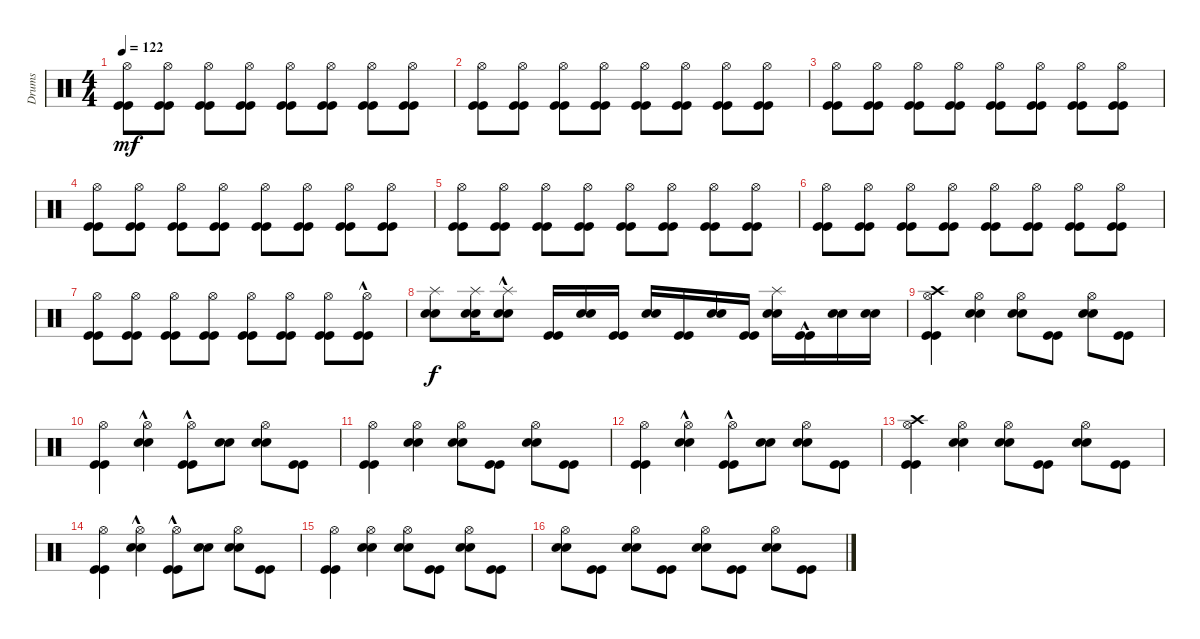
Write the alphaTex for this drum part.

\track ("Drums" "Drums") {instrument percussion}
\staff {score}
\articulation defaults
\ts (4 4)
\tempo 122
\clef neutral
\ks c
("Kick (hit)" "Kick (hit)" "Hi-Hat (open)").8{dy mf} ("Kick (hit)" "Kick (hit)" "Hi-Hat (open)").8 ("Kick (hit)" "Kick (hit)" "Hi-Hat (open)").8 ("Kick (hit)" "Kick (hit)" "Hi-Hat (open)").8 ("Kick (hit)" "Kick (hit)" "Hi-Hat (open)").8 ("Kick (hit)" "Kick (hit)" "Hi-Hat (open)").8 ("Kick (hit)" "Kick (hit)" "Hi-Hat (open)").8 ("Kick (hit)" "Kick (hit)" "Hi-Hat (open)").8 |
("Kick (hit)" "Kick (hit)" "Hi-Hat (open)").8 ("Kick (hit)" "Kick (hit)" "Hi-Hat (open)").8 ("Kick (hit)" "Kick (hit)" "Hi-Hat (open)").8 ("Kick (hit)" "Kick (hit)" "Hi-Hat (open)").8 ("Kick (hit)" "Kick (hit)" "Hi-Hat (open)").8 ("Kick (hit)" "Kick (hit)" "Hi-Hat (open)").8 ("Kick (hit)" "Kick (hit)" "Hi-Hat (open)").8 ("Kick (hit)" "Kick (hit)" "Hi-Hat (open)").8 |
("Kick (hit)" "Kick (hit)" "Hi-Hat (open)").8 ("Kick (hit)" "Kick (hit)" "Hi-Hat (open)").8 ("Kick (hit)" "Kick (hit)" "Hi-Hat (open)").8 ("Kick (hit)" "Kick (hit)" "Hi-Hat (open)").8 ("Kick (hit)" "Kick (hit)" "Hi-Hat (open)").8 ("Kick (hit)" "Kick (hit)" "Hi-Hat (open)").8 ("Kick (hit)" "Kick (hit)" "Hi-Hat (open)").8 ("Kick (hit)" "Kick (hit)" "Hi-Hat (open)").8 |
("Kick (hit)" "Kick (hit)" "Hi-Hat (open)").8 ("Kick (hit)" "Kick (hit)" "Hi-Hat (open)").8 ("Kick (hit)" "Kick (hit)" "Hi-Hat (open)").8 ("Kick (hit)" "Kick (hit)" "Hi-Hat (open)").8 ("Kick (hit)" "Kick (hit)" "Hi-Hat (open)").8 ("Kick (hit)" "Kick (hit)" "Hi-Hat (open)").8 ("Kick (hit)" "Kick (hit)" "Hi-Hat (open)").8 ("Kick (hit)" "Kick (hit)" "Hi-Hat (open)").8 |
("Kick (hit)" "Kick (hit)" "Hi-Hat (open)").8 ("Kick (hit)" "Kick (hit)" "Hi-Hat (open)").8 ("Kick (hit)" "Kick (hit)" "Hi-Hat (open)").8 ("Kick (hit)" "Kick (hit)" "Hi-Hat (open)").8 ("Kick (hit)" "Kick (hit)" "Hi-Hat (open)").8 ("Kick (hit)" "Kick (hit)" "Hi-Hat (open)").8 ("Kick (hit)" "Kick (hit)" "Hi-Hat (open)").8 ("Kick (hit)" "Kick (hit)" "Hi-Hat (open)").8 |
("Kick (hit)" "Kick (hit)" "Hi-Hat (open)").8 ("Kick (hit)" "Kick (hit)" "Hi-Hat (open)").8 ("Kick (hit)" "Kick (hit)" "Hi-Hat (open)").8 ("Kick (hit)" "Kick (hit)" "Hi-Hat (open)").8 ("Kick (hit)" "Kick (hit)" "Hi-Hat (open)").8 ("Kick (hit)" "Kick (hit)" "Hi-Hat (open)").8 ("Kick (hit)" "Kick (hit)" "Hi-Hat (open)").8 ("Kick (hit)" "Kick (hit)" "Hi-Hat (open)").8 |
("Kick (hit)" "Kick (hit)" "Hi-Hat (open)").8 ("Kick (hit)" "Kick (hit)" "Hi-Hat (open)").8 ("Kick (hit)" "Kick (hit)" "Hi-Hat (open)").8 ("Kick (hit)" "Kick (hit)" "Hi-Hat (open)").8 ("Kick (hit)" "Kick (hit)" "Hi-Hat (open)").8 ("Kick (hit)" "Kick (hit)" "Hi-Hat (open)").8 ("Kick (hit)" "Kick (hit)" "Hi-Hat (open)").8 ("Kick (hit)"{hac} "Kick (hit)"{hac} "Hi-Hat (open)").8 |
("Snare (hit) 2" "Snare (hit) 2" "Splash (hit)").8{dy f} ("Snare (hit) 2" "Snare (hit) 2" "Splash (hit)").16 ("Snare (hit) 2"{hac} "Snare (hit) 2"{hac} "Splash (hit)").8 ("Kick (hit)" "Kick (hit)").16 ("Snare (hit) 2" "Snare (hit) 2").16 ("Kick (hit)" "Kick (hit)").16 ("Snare (hit) 2" "Snare (hit) 2").16 ("Kick (hit)" "Kick (hit)").16 ("Snare (hit) 2" "Snare (hit) 2").16 ("Kick (hit)" "Kick (hit)").16 ("Snare (hit) 2" "Snare (hit) 2" "Splash (hit)").16 ("Kick (hit)"{hac} "Kick (hit)"{hac}).16 ("Snare (hit) 2" "Snare (hit) 2").16 ("Snare (hit) 2" "Snare (hit) 2").16 |
("Kick (hit)" "Kick (hit)" "Hi-Hat (open)" "Crash high (hit)").4 ("Snare (hit) 2" "Snare (hit) 2" "Hi-Hat (open)").4 ("Snare (hit) 2" "Snare (hit) 2" "Hi-Hat (open)").8 ("Kick (hit)" "Kick (hit)").8 ("Snare (hit) 2" "Snare (hit) 2" "Hi-Hat (open)").8 ("Kick (hit)" "Kick (hit)").8 |
("Kick (hit)" "Kick (hit)" "Hi-Hat (open)").4 ("Snare (hit) 2"{hac} "Snare (hit) 2"{hac} "Hi-Hat (open)").4 ("Kick (hit)"{hac} "Kick (hit)"{hac} "Hi-Hat (open)").8 ("Snare (hit) 2" "Snare (hit) 2").8 ("Snare (hit) 2" "Snare (hit) 2" "Hi-Hat (open)").8 ("Kick (hit)" "Kick (hit)").8 |
("Kick (hit)" "Kick (hit)" "Hi-Hat (open)").4 ("Snare (hit) 2" "Snare (hit) 2" "Hi-Hat (open)").4 ("Snare (hit) 2" "Snare (hit) 2" "Hi-Hat (open)").8 ("Kick (hit)" "Kick (hit)").8 ("Snare (hit) 2" "Snare (hit) 2" "Hi-Hat (open)").8 ("Kick (hit)" "Kick (hit)").8 |
("Kick (hit)" "Kick (hit)" "Hi-Hat (open)").4 ("Snare (hit) 2"{hac} "Snare (hit) 2"{hac} "Hi-Hat (open)").4 ("Kick (hit)"{hac} "Kick (hit)"{hac} "Hi-Hat (open)").8 ("Snare (hit) 2" "Snare (hit) 2").8 ("Snare (hit) 2" "Snare (hit) 2" "Hi-Hat (open)").8 ("Kick (hit)" "Kick (hit)").8 |
("Kick (hit)" "Kick (hit)" "Hi-Hat (open)" "Crash high (hit)").4 ("Snare (hit) 2" "Snare (hit) 2" "Hi-Hat (open)").4 ("Snare (hit) 2" "Snare (hit) 2" "Hi-Hat (open)").8 ("Kick (hit)" "Kick (hit)").8 ("Snare (hit) 2" "Snare (hit) 2" "Hi-Hat (open)").8 ("Kick (hit)" "Kick (hit)").8 |
("Kick (hit)" "Kick (hit)" "Hi-Hat (open)").4 ("Snare (hit) 2"{hac} "Snare (hit) 2"{hac} "Hi-Hat (open)").4 ("Kick (hit)"{hac} "Kick (hit)"{hac} "Hi-Hat (open)").8 ("Snare (hit) 2" "Snare (hit) 2").8 ("Snare (hit) 2" "Snare (hit) 2" "Hi-Hat (open)").8 ("Kick (hit)" "Kick (hit)").8 |
("Kick (hit)" "Kick (hit)" "Hi-Hat (open)").4 ("Snare (hit) 2" "Snare (hit) 2" "Hi-Hat (open)").4 ("Snare (hit) 2" "Snare (hit) 2" "Hi-Hat (open)").8 ("Kick (hit)" "Kick (hit)").8 ("Snare (hit) 2" "Snare (hit) 2" "Hi-Hat (open)").8 ("Kick (hit)" "Kick (hit)").8 |
("Snare (hit) 2" "Snare (hit) 2" "Hi-Hat (open)").8 ("Kick (hit)" "Kick (hit)").8 ("Snare (hit) 2" "Snare (hit) 2" "Hi-Hat (open)").8 ("Kick (hit)" "Kick (hit)").8 ("Snare (hit) 2" "Snare (hit) 2" "Hi-Hat (open)").8 ("Kick (hit)" "Kick (hit)").8 ("Snare (hit) 2" "Snare (hit) 2" "Hi-Hat (open)").8 ("Kick (hit)" "Kick (hit)").8
